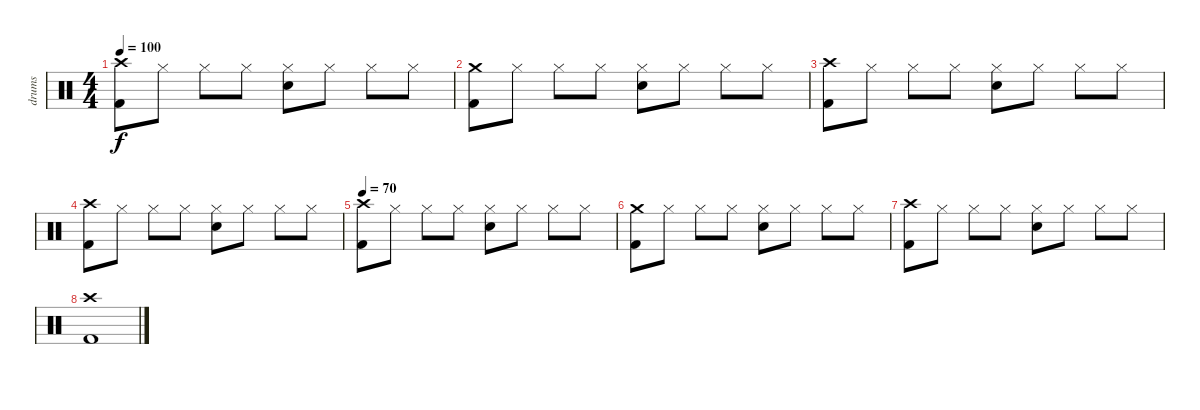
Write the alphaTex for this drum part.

\track ("drums" "drums") {instrument percussion}
\staff {score}
\articulation defaults
\ts (4 4)
\tempo 100
\clef neutral
\ks c
("Crash high (hit)" "Kick (hit) 2").8{dy f} "Hi-Hat (closed)".8 "Hi-Hat (closed)".8 "Hi-Hat (closed)".8 ("Snare (hit) 2" "Hi-Hat (closed)").8 "Hi-Hat (closed)".8 "Hi-Hat (closed)".8 "Hi-Hat (closed)".8 |
("Crash medium (hit)" "Kick (hit) 2").8 "Hi-Hat (closed)".8 "Hi-Hat (closed)".8 "Hi-Hat (closed)".8 ("Snare (hit) 2" "Hi-Hat (closed)").8 "Hi-Hat (closed)".8 "Hi-Hat (closed)".8 "Hi-Hat (closed)".8 |
("Crash high (hit)" "Kick (hit) 2").8 "Hi-Hat (closed)".8 "Hi-Hat (closed)".8 "Hi-Hat (closed)".8 ("Snare (hit) 2" "Hi-Hat (closed)").8 "Hi-Hat (closed)".8 "Hi-Hat (closed)".8 "Hi-Hat (closed)".8 |
("Crash high (hit)" "Kick (hit) 2").8 "Hi-Hat (closed)".8 "Hi-Hat (closed)".8 "Hi-Hat (closed)".8 ("Snare (hit) 2" "Hi-Hat (closed)").8 "Hi-Hat (closed)".8 "Hi-Hat (closed)".8 "Hi-Hat (closed)".8 |
\tempo 70
("Crash high (hit)" "Kick (hit) 2").8 "Hi-Hat (closed)".8 "Hi-Hat (closed)".8 "Hi-Hat (closed)".8 ("Snare (hit) 2" "Hi-Hat (closed)").8 "Hi-Hat (closed)".8 "Hi-Hat (closed)".8 "Hi-Hat (closed)".8 |
("Crash medium (hit)" "Kick (hit) 2").8 "Hi-Hat (closed)".8 "Hi-Hat (closed)".8 "Hi-Hat (closed)".8 ("Snare (hit) 2" "Hi-Hat (closed)").8 "Hi-Hat (closed)".8 "Hi-Hat (closed)".8 "Hi-Hat (closed)".8 |
("Crash high (hit)" "Kick (hit) 2").8 "Hi-Hat (closed)".8 "Hi-Hat (closed)".8 "Hi-Hat (closed)".8 ("Snare (hit) 2" "Hi-Hat (closed)").8 "Hi-Hat (closed)".8 "Hi-Hat (closed)".8 "Hi-Hat (closed)".8 |
("Crash high (hit)" "Kick (hit) 2").1
